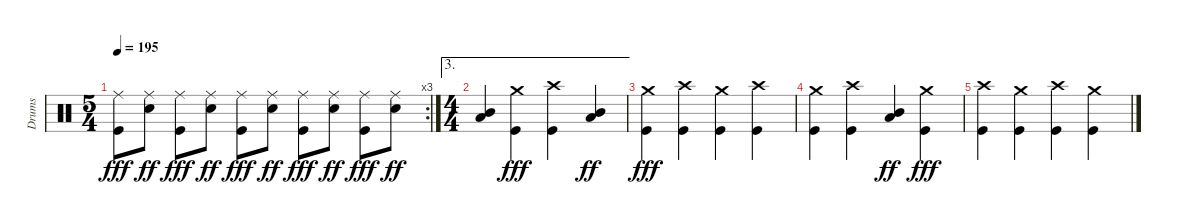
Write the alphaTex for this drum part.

\track ("Drums" "Drums") {instrument percussion}
\staff {score}
\articulation defaults
\rc 3
\ts (5 4)
\tempo 195
\clef neutral
\ks c
("Ride (middle)" "Kick (hit)").8{dy fff} ("Ride (middle)" "Electric Snare (hit)").8{dy ff} ("Ride (middle)" "Kick (hit)").8{dy fff} ("Ride (middle)" "Electric Snare (hit)").8{dy ff} ("Ride (middle)" "Kick (hit)").8{dy fff} ("Ride (middle)" "Electric Snare (hit)").8{dy ff} ("Ride (middle)" "Kick (hit)").8{dy fff} ("Ride (middle)" "Electric Snare (hit)").8{dy ff} ("Ride (middle)" "Kick (hit)").8{dy fff} ("Ride (middle)" "Electric Snare (hit)").8{dy ff} |
\ae 3
\ts (4 4)
("Mid Tom (hit)" "Low Tom (hit)").4 ("Crash medium (hit)" "Kick (hit)").4{dy fff} ("Crash high (hit)" "Kick (hit)").4 ("Mid Tom (hit)" "Low Tom (hit)").4{dy ff} |
("Crash medium (hit)" "Kick (hit)").4{dy fff} ("Crash high (hit)" "Kick (hit)").4 ("Crash medium (hit)" "Kick (hit)").4 ("Crash high (hit)" "Kick (hit)").4 |
("Crash medium (hit)" "Kick (hit)").4 ("Crash high (hit)" "Kick (hit)").4 ("Mid Tom (hit)" "Low Tom (hit)").4{dy ff} ("Crash medium (hit)" "Kick (hit)").4{dy fff} |
("Crash high (hit)" "Kick (hit)").4 ("Crash medium (hit)" "Kick (hit)").4 ("Crash high (hit)" "Kick (hit)").4 ("Crash medium (hit)" "Kick (hit)").4
